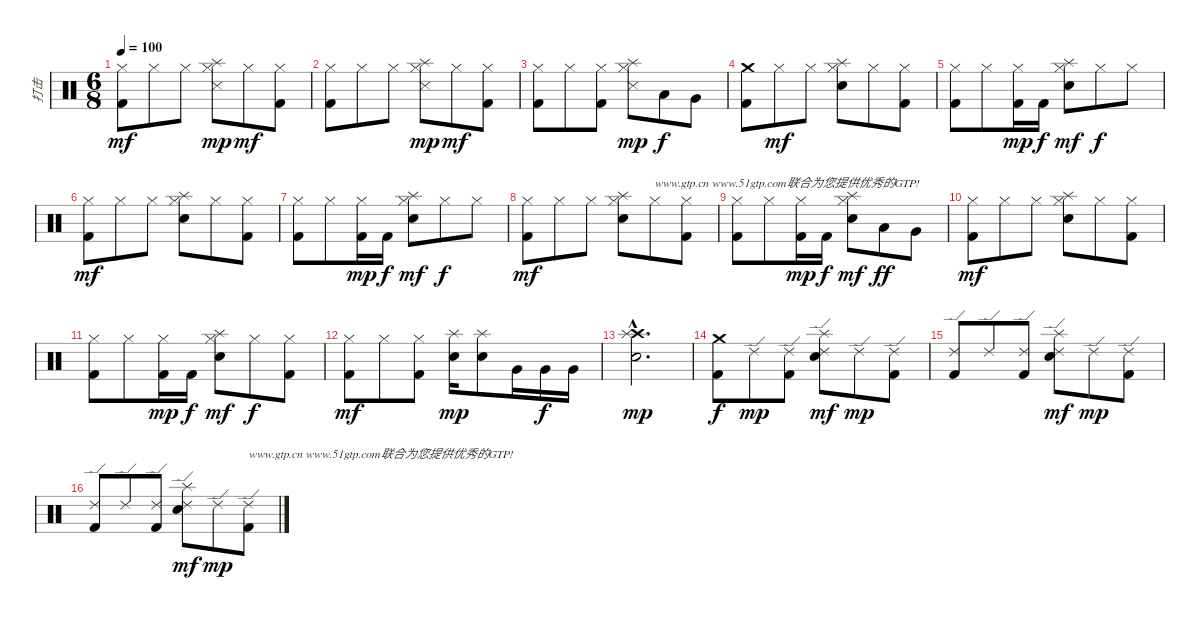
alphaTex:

\track ("打击" "打击") {instrument percussion}
\staff {score}
\articulation defaults
\ts (6 8)
\tempo 100
\clef neutral
\ks c
("Hi-Hat (closed)" "Kick (hit) 2").8{dy mf} "Hi-Hat (closed)".8 "Hi-Hat (closed)".8 ("Hi-Hat (closed)" "Splash (hit)" "Snare (side stick) 3").8{dy mp} "Hi-Hat (closed)".8{dy mf} ("Hi-Hat (closed)" "Kick (hit) 2").8 |
("Hi-Hat (closed)" "Kick (hit) 2").8 "Hi-Hat (closed)".8 "Hi-Hat (closed)".8 ("Hi-Hat (closed)" "Splash (hit)" "Snare (side stick) 3").8{dy mp} "Hi-Hat (closed)".8{dy mf} ("Hi-Hat (closed)" "Kick (hit) 2").8 |
("Hi-Hat (closed)" "Kick (hit) 2").8 "Hi-Hat (closed)".8 ("Hi-Hat (closed)" "Kick (hit) 2").8 ("Hi-Hat (closed)" "Splash (hit)" "Snare (side stick) 3").8{dy mp} "Low Tom (hit)".8{dy f} "Very Low Tom (hit)".8 |
("Crash medium (hit)" "Kick (hit) 2").8 "Hi-Hat (closed)".8{dy mf} "Hi-Hat (closed)".8 ("Hi-Hat (closed)" "Splash (hit)" "Electric Snare (hit)").8 "Hi-Hat (closed)".8 ("Hi-Hat (closed)" "Kick (hit) 2").8 |
("Hi-Hat (closed)" "Kick (hit) 2").8 "Hi-Hat (closed)".8 ("Hi-Hat (closed)" "Kick (hit) 2").16{dy mp} "Kick (hit) 2".16{dy f} ("Hi-Hat (closed)" "Splash (hit)" "Electric Snare (hit)").8{dy mf} "Hi-Hat (closed)".8{dy f} "Hi-Hat (closed)".8 |
("Hi-Hat (closed)" "Kick (hit) 2").8{dy mf} "Hi-Hat (closed)".8 "Hi-Hat (closed)".8 ("Hi-Hat (closed)" "Splash (hit)" "Electric Snare (hit)").8 "Hi-Hat (closed)".8 ("Hi-Hat (closed)" "Kick (hit) 2").8 |
("Hi-Hat (closed)" "Kick (hit) 2").8 "Hi-Hat (closed)".8 ("Hi-Hat (closed)" "Kick (hit) 2").16{dy mp} "Kick (hit) 2".16{dy f} ("Hi-Hat (closed)" "Splash (hit)" "Electric Snare (hit)").8{dy mf} "Hi-Hat (closed)".8{dy f} "Hi-Hat (closed)".8 |
("Hi-Hat (closed)" "Kick (hit) 2").8{dy mf} "Hi-Hat (closed)".8 "Hi-Hat (closed)".8 ("Hi-Hat (closed)" "Splash (hit)" "Electric Snare (hit)").8 "Hi-Hat (closed)".8{txt "www.gtp.cn www.51gtp.com联合为您提供优秀的GTP!"} ("Hi-Hat (closed)" "Kick (hit) 2").8 |
("Hi-Hat (closed)" "Kick (hit) 2").8 "Hi-Hat (closed)".8 ("Hi-Hat (closed)" "Kick (hit) 2").16{dy mp} "Kick (hit) 2".16{dy f} ("Hi-Hat (closed)" "Splash (hit)" "Electric Snare (hit)").8{dy mf} "Low Tom (hit)".8{dy ff} "Very Low Tom (hit)".8 |
("Hi-Hat (closed)" "Kick (hit) 2").8{dy mf} "Hi-Hat (closed)".8 "Hi-Hat (closed)".8 ("Hi-Hat (closed)" "Splash (hit)" "Electric Snare (hit)").8 "Hi-Hat (closed)".8 ("Hi-Hat (closed)" "Kick (hit) 2").8 |
("Hi-Hat (closed)" "Kick (hit) 2").8 "Hi-Hat (closed)".8 ("Hi-Hat (closed)" "Kick (hit) 2").16{dy mp} "Kick (hit) 2".16{dy f} ("Hi-Hat (closed)" "Splash (hit)" "Electric Snare (hit)").8{dy mf} "Hi-Hat (closed)".8{dy f} ("Hi-Hat (closed)" "Kick (hit) 2").8 |
("Hi-Hat (closed)" "Kick (hit) 2").8{dy mf} "Hi-Hat (closed)".8 ("Hi-Hat (closed)" "Kick (hit) 2").8 ("Splash (hit)" "Electric Snare (hit)").16{dy mp} ("Splash (hit)" "Electric Snare (hit)").8 "Very Low Tom (hit)".16 "Very Low Tom (hit)".16{dy f} "Very Low Tom (hit)".16 |
("Crash high (hit)"{hac} "Splash (hit)"{hac} "Electric Snare (hit)"{hac}).2{d dy mp} |
("Crash medium (hit)" "Kick (hit) 2").8{dy f} "Ride (edge) 2".8{dy mp} ("Ride (edge) 2" "Kick (hit) 2").8 ("Ride (edge) 2" "Splash (hit)" "Electric Snare (hit)").8{dy mf} "Ride (edge) 2".8{dy mp} ("Ride (edge) 2" "Kick (hit) 2").8 |
("Ride (edge) 2" "Kick (hit) 2").8 "Ride (edge) 2".8 ("Ride (edge) 2" "Kick (hit) 2").8 ("Ride (edge) 2" "Splash (hit)" "Electric Snare (hit)").8{dy mf} "Ride (edge) 2".8{dy mp} ("Ride (edge) 2" "Kick (hit) 2").8 |
("Ride (edge) 2" "Kick (hit) 2").8 "Ride (edge) 2".8 ("Ride (edge) 2" "Kick (hit) 2").8 ("Ride (edge) 2" "Splash (hit)" "Electric Snare (hit)").8{dy mf} "Ride (edge) 2".8{dy mp} ("Ride (edge) 2" "Kick (hit) 2").8{txt "www.gtp.cn www.51gtp.com联合为您提供优秀的GTP!"}
